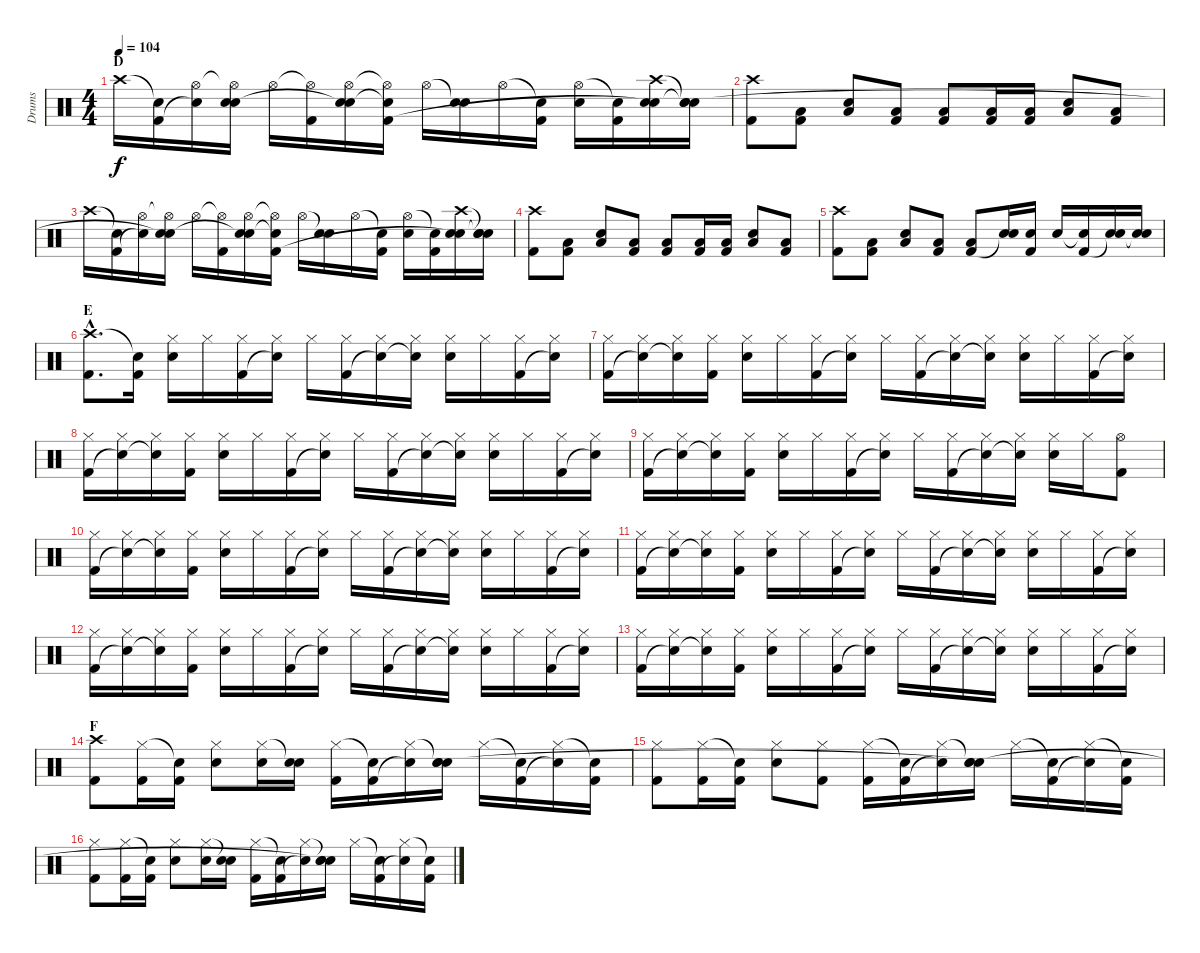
\track ("Drums" "Drums") {instrument percussion}
\staff {score}
\articulation defaults
\ts (4 4)
\section ("" "D")
\tempo 104
\clef neutral
\ks c "Crash high (hit)".16{dy f}
("Snare (hit)"{t} "Kick (hit) 2").16 ("Hi-Hat (open)" "Snare (hit)"{t}).16 ("Hi-Hat (open)"{t} "Snare (hit) 2" "Snare (hit)"{t}).16 "Hi-Hat (open)".16 ("Hi-Hat (open)"{t} "Kick (hit) 2").16 ("Hi-Hat (open)" "Snare (hit) 2" "Snare (hit)"{t}).16 ("Hi-Hat (open)"{t} "Snare (hit)"{t} "Kick (hit) 2").16 "Hi-Hat (open)".16 ("Snare (hit)"{t} "Snare (hit) 2").16 "Hi-Hat (open)".16 ("Snare (hit)"{t} "Kick (hit) 2").16 ("Hi-Hat (open)" "Snare (hit) 2").16 ("Snare (hit)"{t} "Kick (hit) 2").16 ("Crash high (hit)" "Snare (hit) 2" "Snare (hit)"{t}).16 ("Snare (hit)"{t} "Snare (hit) 2" "Snare (hit)"{t}).16 |
("Crash high (hit)" "Kick (hit) 2").8 ("Low Tom (hit)" "Kick (hit) 2").8 ("Low Tom (hit)" "Snare (hit) 2").8 ("Low Tom (hit)" "Kick (hit) 2").8 ("Low Tom (hit)" "Kick (hit) 2").8 ("Low Tom (hit)" "Kick (hit) 2").16 ("Low Tom (hit)" "Kick (hit) 2").16 ("Low Tom (hit)" "Snare (hit) 2").8 ("Low Tom (hit)" "Kick (hit) 2").8 |
"Crash high (hit)".16 ("Snare (hit)"{t} "Kick (hit) 2").16 ("Hi-Hat (open)" "Snare (hit)"{t}).16 ("Hi-Hat (open)"{t} "Snare (hit) 2" "Snare (hit)"{t}).16 "Hi-Hat (open)".16 ("Hi-Hat (open)"{t} "Kick (hit) 2").16 ("Hi-Hat (open)" "Snare (hit) 2" "Snare (hit)"{t}).16 ("Hi-Hat (open)"{t} "Snare (hit)"{t} "Kick (hit) 2").16 "Hi-Hat (open)".16 ("Snare (hit)"{t} "Snare (hit) 2").16 "Hi-Hat (open)".16 ("Snare (hit)"{t} "Kick (hit) 2").16 ("Hi-Hat (open)" "Snare (hit) 2").16 ("Snare (hit)"{t} "Kick (hit) 2").16 ("Crash high (hit)" "Snare (hit) 2" "Snare (hit)"{t}).16 ("Snare (hit)"{t} "Snare (hit) 2" "Snare (hit)"{t}).16 |
("Crash high (hit)" "Kick (hit) 2").8 ("Low Tom (hit)" "Kick (hit) 2").8 ("Low Tom (hit)" "Snare (hit) 2").8 ("Low Tom (hit)" "Kick (hit) 2").8 ("Low Tom (hit)" "Kick (hit) 2").8 ("Low Tom (hit)" "Kick (hit) 2").16 ("Low Tom (hit)" "Kick (hit) 2").16 ("Low Tom (hit)" "Snare (hit) 2").8 ("Low Tom (hit)" "Kick (hit) 2").8 |
("Crash high (hit)" "Kick (hit) 2").8 ("Low Tom (hit)" "Kick (hit) 2").8 ("Low Tom (hit)" "Snare (hit) 2").8 ("Low Tom (hit)" "Kick (hit) 2").8 ("Low Tom (hit)" "Kick (hit) 2").8 ("Snare (hit) 2" "Snare (hit)"{t}).16 ("Snare (hit) 2" "Kick (hit) 2").16 "Snare (hit) 2".16 ("Snare (hit)"{t} "Kick (hit) 2").16 ("Snare (hit) 2" "Snare (hit)"{t}).16 ("Snare (hit) 2" "Snare (hit)"{t}).16 |
\section ("" "E")
("Crash high (hit)"{hac} "Kick (hit) 2"{hac}).8{d} ("Snare (hit)"{t} "Kick (hit) 2").16 ("Hi-Hat (closed)" "Snare (hit) 2").16 "Hi-Hat (closed)".16 ("Hi-Hat (closed)" "Kick (hit) 2").16 ("Hi-Hat (closed)" "Snare (hit)"{t}).16 "Hi-Hat (closed)".16 ("Hi-Hat (closed)" "Kick (hit) 2").16 ("Hi-Hat (closed)" "Snare (hit)"{t}).16 ("Hi-Hat (closed)" "Snare (hit)"{t}).16 ("Hi-Hat (closed)" "Snare (hit) 2").16 "Hi-Hat (closed)".16 ("Hi-Hat (closed)" "Kick (hit) 2").16 ("Hi-Hat (closed)" "Snare (hit)"{t}).16 |
("Hi-Hat (closed)" "Kick (hit) 2").16 ("Hi-Hat (closed)" "Snare (hit)"{t}).16 ("Hi-Hat (closed)" "Snare (hit)"{t}).16 ("Hi-Hat (closed)" "Kick (hit) 2").16 ("Hi-Hat (closed)" "Snare (hit) 2").16 "Hi-Hat (closed)".16 ("Hi-Hat (closed)" "Kick (hit) 2").16 ("Hi-Hat (closed)" "Snare (hit)"{t}).16 "Hi-Hat (closed)".16 ("Hi-Hat (closed)" "Kick (hit) 2").16 ("Hi-Hat (closed)" "Snare (hit)"{t}).16 ("Hi-Hat (closed)" "Snare (hit)"{t}).16 ("Hi-Hat (closed)" "Snare (hit) 2").16 "Hi-Hat (closed)".16 ("Hi-Hat (closed)" "Kick (hit) 2").16 ("Hi-Hat (closed)" "Snare (hit)"{t}).16 |
("Hi-Hat (closed)" "Kick (hit) 2").16 ("Hi-Hat (closed)" "Snare (hit)"{t}).16 ("Hi-Hat (closed)" "Snare (hit)"{t}).16 ("Hi-Hat (closed)" "Kick (hit) 2").16 ("Hi-Hat (closed)" "Snare (hit) 2").16 "Hi-Hat (closed)".16 ("Hi-Hat (closed)" "Kick (hit) 2").16 ("Hi-Hat (closed)" "Snare (hit)"{t}).16 "Hi-Hat (closed)".16 ("Hi-Hat (closed)" "Kick (hit) 2").16 ("Hi-Hat (closed)" "Snare (hit)"{t}).16 ("Hi-Hat (closed)" "Snare (hit)"{t}).16 ("Hi-Hat (closed)" "Snare (hit) 2").16 "Hi-Hat (closed)".16 ("Hi-Hat (closed)" "Kick (hit) 2").16 ("Hi-Hat (closed)" "Snare (hit)"{t}).16 |
("Hi-Hat (closed)" "Kick (hit) 2").16 ("Hi-Hat (closed)" "Snare (hit)"{t}).16 ("Hi-Hat (closed)" "Snare (hit)"{t}).16 ("Hi-Hat (closed)" "Kick (hit) 2").16 ("Hi-Hat (closed)" "Snare (hit) 2").16 "Hi-Hat (closed)".16 ("Hi-Hat (closed)" "Kick (hit) 2").16 ("Hi-Hat (closed)" "Snare (hit)"{t}).16 "Hi-Hat (closed)".16 ("Hi-Hat (closed)" "Kick (hit) 2").16 ("Hi-Hat (closed)" "Snare (hit)"{t}).16 ("Hi-Hat (closed)" "Snare (hit)"{t}).16 ("Hi-Hat (closed)" "Snare (hit) 2").16 "Hi-Hat (closed)".16 ("Hi-Hat (open)" "Kick (hit) 2").8 |
("Hi-Hat (closed)" "Kick (hit) 2").16 ("Hi-Hat (closed)" "Snare (hit)"{t}).16 ("Hi-Hat (closed)" "Snare (hit)"{t}).16 ("Hi-Hat (closed)" "Kick (hit) 2").16 ("Hi-Hat (closed)" "Snare (hit) 2").16 "Hi-Hat (closed)".16 ("Hi-Hat (closed)" "Kick (hit) 2").16 ("Hi-Hat (closed)" "Snare (hit)"{t}).16 "Hi-Hat (closed)".16 ("Hi-Hat (closed)" "Kick (hit) 2").16 ("Hi-Hat (closed)" "Snare (hit)"{t}).16 ("Hi-Hat (closed)" "Snare (hit)"{t}).16 ("Hi-Hat (closed)" "Snare (hit) 2").16 "Hi-Hat (closed)".16 ("Hi-Hat (closed)" "Kick (hit) 2").16 ("Hi-Hat (closed)" "Snare (hit)"{t}).16 |
("Hi-Hat (closed)" "Kick (hit) 2").16 ("Hi-Hat (closed)" "Snare (hit)"{t}).16 ("Hi-Hat (closed)" "Snare (hit)"{t}).16 ("Hi-Hat (closed)" "Kick (hit) 2").16 ("Hi-Hat (closed)" "Snare (hit) 2").16 "Hi-Hat (closed)".16 ("Hi-Hat (closed)" "Kick (hit) 2").16 ("Hi-Hat (closed)" "Snare (hit)"{t}).16 "Hi-Hat (closed)".16 ("Hi-Hat (closed)" "Kick (hit) 2").16 ("Hi-Hat (closed)" "Snare (hit)"{t}).16 ("Hi-Hat (closed)" "Snare (hit)"{t}).16 ("Hi-Hat (closed)" "Snare (hit) 2").16 "Hi-Hat (closed)".16 ("Hi-Hat (closed)" "Kick (hit) 2").16 ("Hi-Hat (closed)" "Snare (hit)"{t}).16 |
("Hi-Hat (closed)" "Kick (hit) 2").16 ("Hi-Hat (closed)" "Snare (hit)"{t}).16 ("Hi-Hat (closed)" "Snare (hit)"{t}).16 ("Hi-Hat (closed)" "Kick (hit) 2").16 ("Hi-Hat (closed)" "Snare (hit) 2").16 "Hi-Hat (closed)".16 ("Hi-Hat (closed)" "Kick (hit) 2").16 ("Hi-Hat (closed)" "Snare (hit)"{t}).16 "Hi-Hat (closed)".16 ("Hi-Hat (closed)" "Kick (hit) 2").16 ("Hi-Hat (closed)" "Snare (hit)"{t}).16 ("Hi-Hat (closed)" "Snare (hit)"{t}).16 ("Hi-Hat (closed)" "Snare (hit) 2").16 "Hi-Hat (closed)".16 ("Hi-Hat (closed)" "Kick (hit) 2").16 ("Hi-Hat (closed)" "Snare (hit)"{t}).16 |
("Hi-Hat (closed)" "Kick (hit) 2").16 ("Hi-Hat (closed)" "Snare (hit)"{t}).16 ("Hi-Hat (closed)" "Snare (hit)"{t}).16 ("Hi-Hat (closed)" "Kick (hit) 2").16 ("Hi-Hat (closed)" "Snare (hit) 2").16 "Hi-Hat (closed)".16 ("Hi-Hat (closed)" "Kick (hit) 2").16 ("Hi-Hat (closed)" "Snare (hit)"{t}).16 "Hi-Hat (closed)".16 ("Hi-Hat (closed)" "Kick (hit) 2").16 ("Hi-Hat (closed)" "Snare (hit)"{t}).16 ("Hi-Hat (closed)" "Snare (hit)"{t}).16 ("Hi-Hat (closed)" "Snare (hit) 2").16 "Hi-Hat (closed)".16 ("Hi-Hat (closed)" "Kick (hit) 2").16 ("Hi-Hat (closed)" "Snare (hit)"{t}).16 |
\section ("" "F")
("Crash high (hit)" "Kick (hit) 2").8 ("Hi-Hat (closed)" "Kick (hit) 2").16 ("Snare (hit)"{t} "Kick (hit) 2").16 ("Hi-Hat (closed)" "Snare (hit) 2").8 ("Hi-Hat (closed)" "Snare (hit) 2").16 ("Snare (hit)"{t} "Snare (hit) 2").16 ("Hi-Hat (closed)" "Kick (hit) 2").16 ("Snare (hit)"{t} "Kick (hit) 2").16 ("Hi-Hat (closed)" "Snare (hit)"{t}).16 ("Snare (hit)"{t} "Snare (hit) 2" "Snare (hit)").16 "Hi-Hat (closed)".16 ("Snare (hit)"{t} "Kick (hit) 2").16 ("Hi-Hat (closed)" "Snare (hit)"{t}).16 ("Snare (hit)"{t} "Kick (hit) 2").16 |
("Hi-Hat (closed)" "Kick (hit) 2").8 ("Hi-Hat (closed)" "Kick (hit) 2").16 ("Snare (hit)"{t} "Kick (hit) 2").16 ("Hi-Hat (closed)" "Snare (hit) 2").8 ("Hi-Hat (closed)" "Kick (hit) 2").8 ("Hi-Hat (closed)" "Kick (hit) 2").16 ("Snare (hit)"{t} "Kick (hit) 2").16 ("Hi-Hat (closed)" "Snare (hit)"{t}).16 ("Snare (hit)"{t} "Snare (hit) 2" "Snare (hit)"{t}).16 "Hi-Hat (closed)".16 ("Snare (hit)"{t} "Kick (hit) 2").16 ("Hi-Hat (closed)" "Snare (hit)"{t}).16 ("Snare (hit)"{t} "Kick (hit) 2").16 |
("Hi-Hat (closed)" "Kick (hit) 2").8 ("Hi-Hat (closed)" "Kick (hit) 2").16 ("Snare (hit)"{t} "Kick (hit) 2").16 ("Hi-Hat (closed)" "Snare (hit) 2").8 ("Hi-Hat (closed)" "Snare (hit) 2").16 ("Snare (hit)"{t} "Snare (hit) 2").16 ("Hi-Hat (closed)" "Kick (hit) 2").16 ("Snare (hit)"{t} "Kick (hit) 2").16 ("Hi-Hat (closed)" "Snare (hit)"{t}).16 ("Snare (hit)"{t} "Snare (hit) 2" "Snare (hit)"{t}).16 "Hi-Hat (closed)".16 ("Snare (hit)"{t} "Kick (hit) 2").16 ("Hi-Hat (closed)" "Snare (hit)"{t}).16 ("Snare (hit)"{t} "Kick (hit) 2").16
